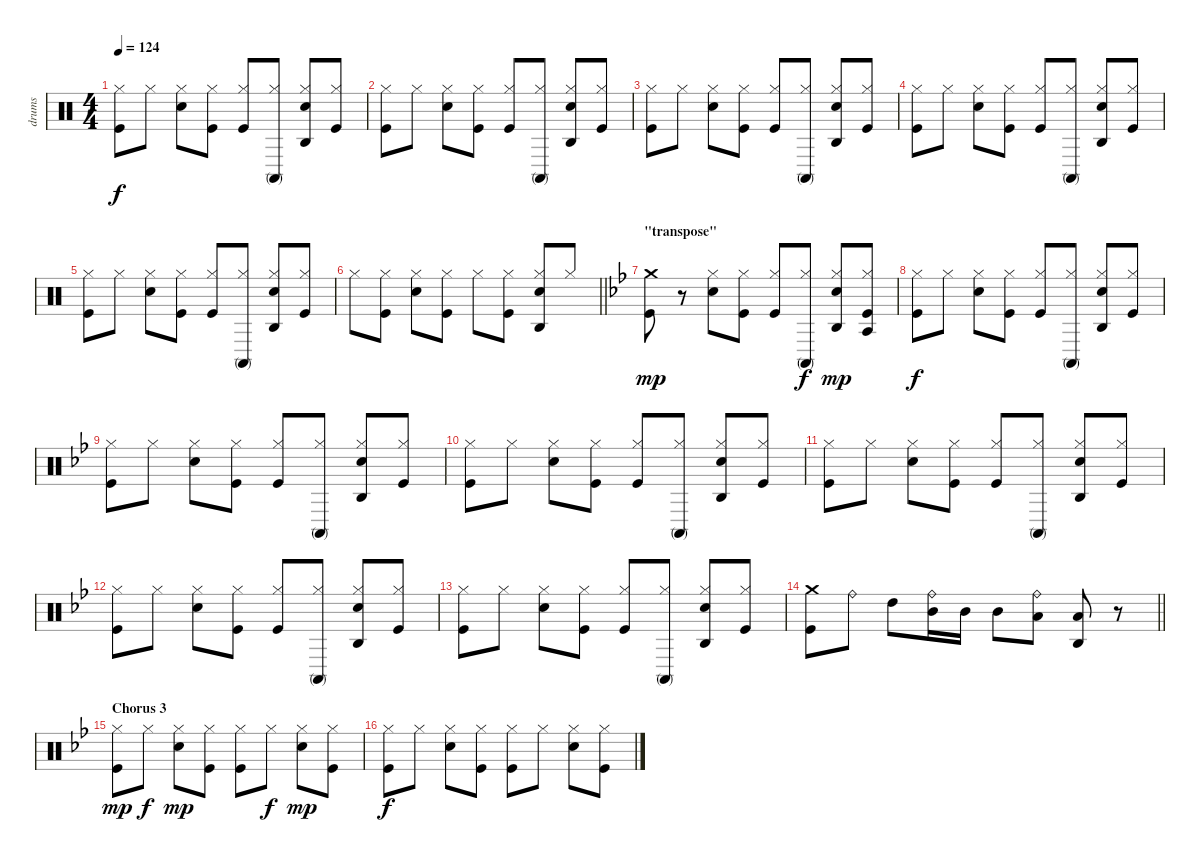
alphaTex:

\track ("drums" "drums") {instrument percussion}
\staff {score}
\articulation defaults
\ts (4 4)
\tempo 124
\clef neutral
\ks c
("Hi-Hat (closed)" "Kick (hit)").8{dy f} "Hi-Hat (closed)".8 ("Electric Snare (hit)" "Hi-Hat (closed)").8 ("Hi-Hat (closed)" "Kick (hit)").8 ("Hi-Hat (closed)" "Kick (hit)").8 ("Conga high (mute)" "Hi-Hat (closed)").8 ("Agogo high (hit)" "Electric Snare (hit)" "Hi-Hat (closed)").8 ("Hi-Hat (closed)" "Kick (hit)").8 |
("Hi-Hat (closed)" "Kick (hit)").8 "Hi-Hat (closed)".8 ("Electric Snare (hit)" "Hi-Hat (closed)").8 ("Hi-Hat (closed)" "Kick (hit)").8 ("Hi-Hat (closed)" "Kick (hit)").8 ("Conga high (mute)" "Hi-Hat (closed)").8 ("Agogo high (hit)" "Electric Snare (hit)" "Hi-Hat (closed)").8 ("Hi-Hat (closed)" "Kick (hit)").8 |
("Hi-Hat (closed)" "Kick (hit)").8 "Hi-Hat (closed)".8 ("Electric Snare (hit)" "Hi-Hat (closed)").8 ("Hi-Hat (closed)" "Kick (hit)").8 ("Hi-Hat (closed)" "Kick (hit)").8 ("Conga high (mute)" "Hi-Hat (closed)").8 ("Agogo high (hit)" "Electric Snare (hit)" "Hi-Hat (closed)").8 ("Hi-Hat (closed)" "Kick (hit)").8 |
("Hi-Hat (closed)" "Kick (hit)").8 "Hi-Hat (closed)".8 ("Electric Snare (hit)" "Hi-Hat (closed)").8 ("Hi-Hat (closed)" "Kick (hit)").8 ("Hi-Hat (closed)" "Kick (hit)").8 ("Conga high (mute)" "Hi-Hat (closed)").8 ("Agogo high (hit)" "Electric Snare (hit)" "Hi-Hat (closed)").8 ("Hi-Hat (closed)" "Kick (hit)").8 |
("Hi-Hat (closed)" "Kick (hit)").8 "Hi-Hat (closed)".8 ("Electric Snare (hit)" "Hi-Hat (closed)").8 ("Hi-Hat (closed)" "Kick (hit)").8 ("Hi-Hat (closed)" "Kick (hit)").8 ("Conga high (mute)" "Hi-Hat (closed)").8 ("Agogo high (hit)" "Electric Snare (hit)" "Hi-Hat (closed)").8 ("Hi-Hat (closed)" "Kick (hit)").8 |
\barLineRight lightlight "Hi-Hat (closed)".8
("Hi-Hat (closed)" "Kick (hit)").8 ("Electric Snare (hit)" "Hi-Hat (closed)").8 ("Hi-Hat (closed)" "Kick (hit)").8 "Hi-Hat (closed)".8 ("Hi-Hat (closed)" "Kick (hit)").8 ("Agogo high (hit)" "Electric Snare (hit)" "Hi-Hat (closed)").8 "Hi-Hat (closed)".8 |
\section ("" "\"transpose\"")
\ks bb
("Crash medium (hit)" "Kick (hit)").8{dy mp} r.8 ("Electric Snare (hit)" "Hi-Hat (closed)").8 ("Hi-Hat (closed)" "Kick (hit)").8 ("Hi-Hat (closed)" "Kick (hit)").8 ("Conga high (mute)" "Hi-Hat (closed)").8{dy f} ("Agogo high (hit)" "Electric Snare (hit)" "Hi-Hat (closed)").8{dy mp} ("Agogo tow (hit)" "Hi-Hat (closed)" "Kick (hit)").8 |
("Hi-Hat (closed)" "Kick (hit)").8{dy f} "Hi-Hat (closed)".8 ("Electric Snare (hit)" "Hi-Hat (closed)").8 ("Hi-Hat (closed)" "Kick (hit)").8 ("Hi-Hat (closed)" "Kick (hit)").8 ("Conga high (mute)" "Hi-Hat (closed)").8 ("Agogo high (hit)" "Electric Snare (hit)" "Hi-Hat (closed)").8 ("Hi-Hat (closed)" "Kick (hit)").8 |
("Hi-Hat (closed)" "Kick (hit)").8 "Hi-Hat (closed)".8 ("Electric Snare (hit)" "Hi-Hat (closed)").8 ("Hi-Hat (closed)" "Kick (hit)").8 ("Hi-Hat (closed)" "Kick (hit)").8 ("Conga high (mute)" "Hi-Hat (closed)").8 ("Agogo high (hit)" "Electric Snare (hit)" "Hi-Hat (closed)").8 ("Hi-Hat (closed)" "Kick (hit)").8 |
("Hi-Hat (closed)" "Kick (hit)").8 "Hi-Hat (closed)".8 ("Electric Snare (hit)" "Hi-Hat (closed)").8 ("Hi-Hat (closed)" "Kick (hit)").8 ("Hi-Hat (closed)" "Kick (hit)").8 ("Conga high (mute)" "Hi-Hat (closed)").8 ("Agogo high (hit)" "Electric Snare (hit)" "Hi-Hat (closed)").8 ("Hi-Hat (closed)" "Kick (hit)").8 |
("Hi-Hat (closed)" "Kick (hit)").8 "Hi-Hat (closed)".8 ("Electric Snare (hit)" "Hi-Hat (closed)").8 ("Hi-Hat (closed)" "Kick (hit)").8 ("Hi-Hat (closed)" "Kick (hit)").8 ("Conga high (mute)" "Hi-Hat (closed)").8 ("Agogo high (hit)" "Electric Snare (hit)" "Hi-Hat (closed)").8 ("Hi-Hat (closed)" "Kick (hit)").8 |
("Hi-Hat (closed)" "Kick (hit)").8 "Hi-Hat (closed)".8 ("Electric Snare (hit)" "Hi-Hat (closed)").8 ("Hi-Hat (closed)" "Kick (hit)").8 ("Hi-Hat (closed)" "Kick (hit)").8 ("Conga high (mute)" "Hi-Hat (closed)").8 ("Agogo high (hit)" "Electric Snare (hit)" "Hi-Hat (closed)").8 ("Hi-Hat (closed)" "Kick (hit)").8 |
("Hi-Hat (closed)" "Kick (hit)").8 "Hi-Hat (closed)".8 ("Electric Snare (hit)" "Hi-Hat (closed)").8 ("Hi-Hat (closed)" "Kick (hit)").8 ("Hi-Hat (closed)" "Kick (hit)").8 ("Conga high (mute)" "Hi-Hat (closed)").8 ("Agogo high (hit)" "Electric Snare (hit)" "Hi-Hat (closed)").8 ("Hi-Hat (closed)" "Kick (hit)").8 |
\barLineRight lightlight
("Crash medium (hit)" "Kick (hit)").8 "Ride (bell)".8 "High Tom (hit)".8 ("Ride (bell)" "Mid Tom (hit)").16 "Mid Tom (hit)".16 "Mid Tom (hit)".8 ("Ride (bell)" "Low Tom (hit)").8 ("Agogo high (hit)" "Low Tom (hit)").8 r.8 |
\section ("" "Chorus 3")
("Hi-Hat (closed)" "Kick (hit)").8{dy mp} "Hi-Hat (closed)".8{dy f} ("Electric Snare (hit)" "Hi-Hat (closed)").8{dy mp} ("Hi-Hat (closed)" "Kick (hit)").8 ("Hi-Hat (closed)" "Kick (hit)").8 "Hi-Hat (closed)".8{dy f} ("Electric Snare (hit)" "Hi-Hat (closed)").8{dy mp} ("Hi-Hat (closed)" "Kick (hit)").8 |
("Hi-Hat (closed)" "Kick (hit)").8{dy f} "Hi-Hat (closed)".8 ("Electric Snare (hit)" "Hi-Hat (closed)").8 ("Hi-Hat (closed)" "Kick (hit)").8 ("Hi-Hat (closed)" "Kick (hit)").8 "Hi-Hat (closed)".8 ("Electric Snare (hit)" "Hi-Hat (closed)").8 ("Hi-Hat (closed)" "Kick (hit)").8
